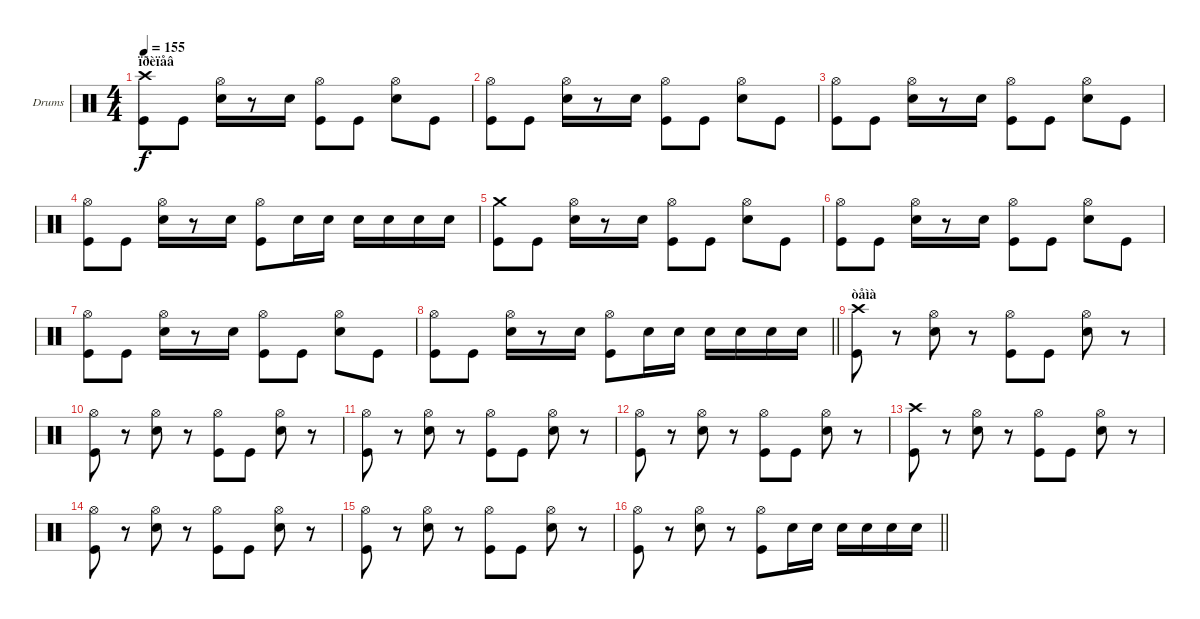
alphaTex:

\bracketExtendMode groupsimilarinstruments
\firstSystemTrackNameOrientation horizontal
\otherSystemsTrackNameOrientation horizontal
\track ("Drumkit" "Drums") {instrument percussion}
\staff {score}
\articulation defaults
\ts (4 4)
\section ("" "ïðèïåâ")
\tempo 155
\clef neutral
\ks c
("Crash high (hit)" "Kick (hit)").8{dy f} "Kick (hit)".8 ("Hi-Hat (open)" "Snare (hit) 2").16 r.8 "Snare (hit) 2".16 ("Hi-Hat (open)" "Kick (hit)").8 "Kick (hit)".8 ("Hi-Hat (open)" "Snare (hit) 2").8 "Kick (hit)".8 |
("Hi-Hat (open)" "Kick (hit)").8 "Kick (hit)".8 ("Hi-Hat (open)" "Snare (hit) 2").16 r.8 "Snare (hit) 2".16 ("Hi-Hat (open)" "Kick (hit)").8 "Kick (hit)".8 ("Hi-Hat (open)" "Snare (hit) 2").8 "Kick (hit)".8 |
("Hi-Hat (open)" "Kick (hit)").8 "Kick (hit)".8 ("Hi-Hat (open)" "Snare (hit) 2").16 r.8 "Snare (hit) 2".16 ("Hi-Hat (open)" "Kick (hit)").8 "Kick (hit)".8 ("Hi-Hat (open)" "Snare (hit) 2").8 "Kick (hit)".8 |
("Hi-Hat (open)" "Kick (hit)").8 "Kick (hit)".8 ("Hi-Hat (open)" "Snare (hit) 2").16 r.8 "Snare (hit) 2".16 ("Hi-Hat (open)" "Kick (hit)").8 "Snare (hit) 2".16 "Snare (hit) 2".16 "Snare (hit) 2".16 "Snare (hit) 2".16 "Snare (hit) 2".16 "Snare (hit) 2".16 |
("Crash medium (hit)" "Kick (hit)").8 "Kick (hit)".8 ("Hi-Hat (open)" "Snare (hit) 2").16 r.8 "Snare (hit) 2".16 ("Hi-Hat (open)" "Kick (hit)").8 "Kick (hit)".8 ("Hi-Hat (open)" "Snare (hit) 2").8 "Kick (hit)".8 |
("Hi-Hat (open)" "Kick (hit)").8 "Kick (hit)".8 ("Hi-Hat (open)" "Snare (hit) 2").16 r.8 "Snare (hit) 2".16 ("Hi-Hat (open)" "Kick (hit)").8 "Kick (hit)".8 ("Hi-Hat (open)" "Snare (hit) 2").8 "Kick (hit)".8 |
("Hi-Hat (open)" "Kick (hit)").8 "Kick (hit)".8 ("Hi-Hat (open)" "Snare (hit) 2").16 r.8 "Snare (hit) 2".16 ("Hi-Hat (open)" "Kick (hit)").8 "Kick (hit)".8 ("Hi-Hat (open)" "Snare (hit) 2").8 "Kick (hit)".8 |
\barLineRight lightlight
("Hi-Hat (open)" "Kick (hit)").8 "Kick (hit)".8 ("Hi-Hat (open)" "Snare (hit) 2").16 r.8 "Snare (hit) 2".16 ("Hi-Hat (open)" "Kick (hit)").8 "Snare (hit) 2".16 "Snare (hit) 2".16 "Snare (hit) 2".16 "Snare (hit) 2".16 "Snare (hit) 2".16 "Snare (hit) 2".16 |
\section ("" "òåìà")
("Crash high (hit)" "Kick (hit)").8 r.8 ("Hi-Hat (open)" "Snare (hit) 2").8 r.8 ("Hi-Hat (open)" "Kick (hit)").8 "Kick (hit)".8 ("Hi-Hat (open)" "Snare (hit) 2").8 r.8 |
("Hi-Hat (open)" "Kick (hit)").8 r.8 ("Hi-Hat (open)" "Snare (hit) 2").8 r.8 ("Hi-Hat (open)" "Kick (hit)").8 "Kick (hit)".8 ("Hi-Hat (open)" "Snare (hit) 2").8 r.8 |
("Hi-Hat (open)" "Kick (hit)").8 r.8 ("Hi-Hat (open)" "Snare (hit) 2").8 r.8 ("Hi-Hat (open)" "Kick (hit)").8 "Kick (hit)".8 ("Hi-Hat (open)" "Snare (hit) 2").8 r.8 |
("Hi-Hat (open)" "Kick (hit)").8 r.8 ("Hi-Hat (open)" "Snare (hit) 2").8 r.8 ("Hi-Hat (open)" "Kick (hit)").8 "Kick (hit)".8 ("Hi-Hat (open)" "Snare (hit) 2").8 r.8 |
("Crash high (hit)" "Kick (hit)").8 r.8 ("Hi-Hat (open)" "Snare (hit) 2").8 r.8 ("Hi-Hat (open)" "Kick (hit)").8 "Kick (hit)".8 ("Hi-Hat (open)" "Snare (hit) 2").8 r.8 |
("Hi-Hat (open)" "Kick (hit)").8 r.8 ("Hi-Hat (open)" "Snare (hit) 2").8 r.8 ("Hi-Hat (open)" "Kick (hit)").8 "Kick (hit)".8 ("Hi-Hat (open)" "Snare (hit) 2").8 r.8 |
("Hi-Hat (open)" "Kick (hit)").8 r.8 ("Hi-Hat (open)" "Snare (hit) 2").8 r.8 ("Hi-Hat (open)" "Kick (hit)").8 "Kick (hit)".8 ("Hi-Hat (open)" "Snare (hit) 2").8 r.8 |
\barLineRight lightlight
("Hi-Hat (open)" "Kick (hit)").8 r.8 ("Hi-Hat (open)" "Snare (hit) 2").8 r.8 ("Hi-Hat (open)" "Kick (hit)").8 "Snare (hit) 2".16 "Snare (hit) 2".16 "Snare (hit) 2".16 "Snare (hit) 2".16 "Snare (hit) 2".16 "Snare (hit) 2".16
